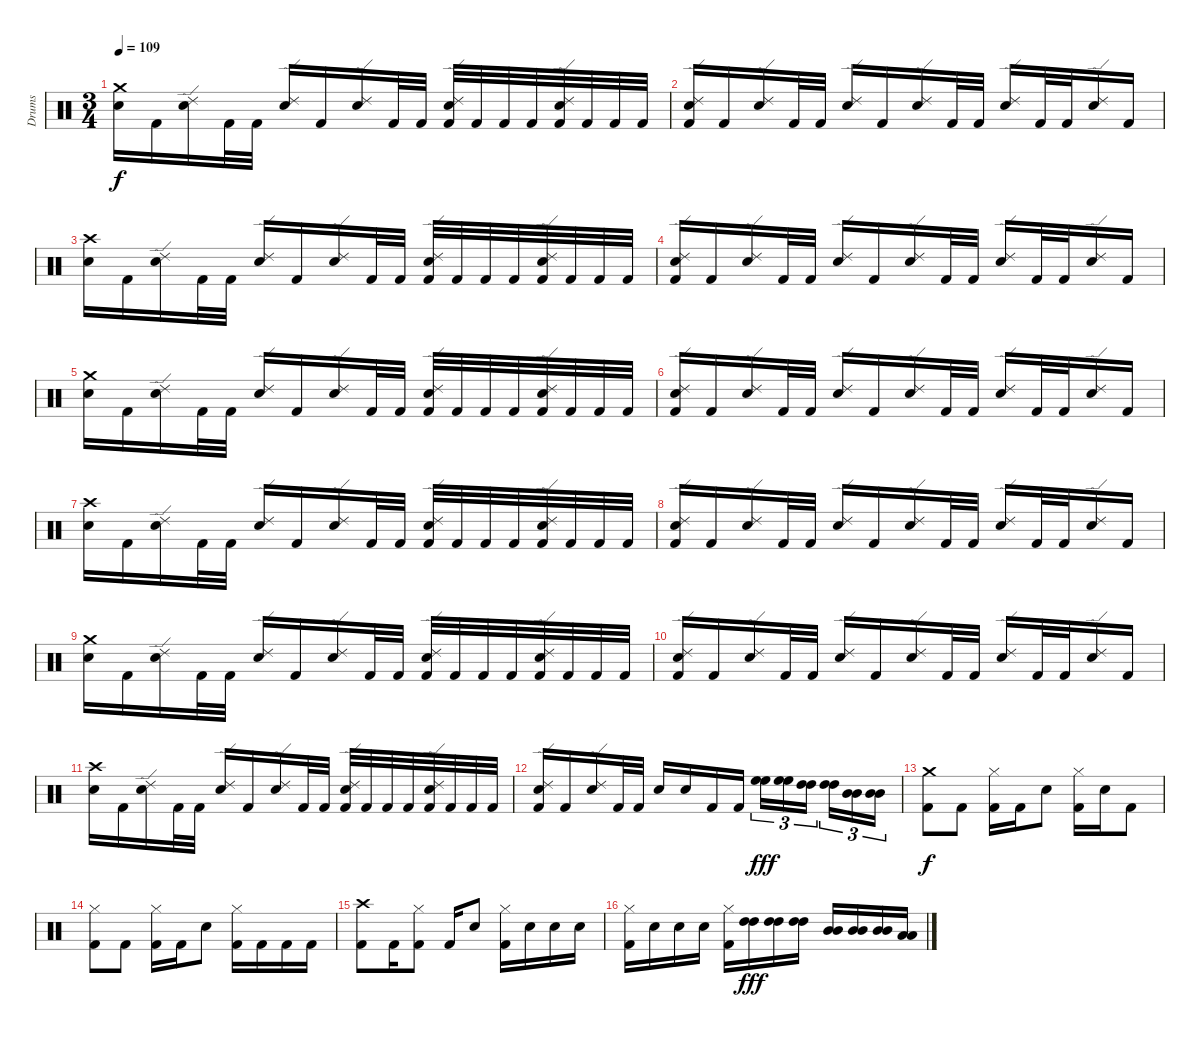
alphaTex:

\track ("Drums" "Drums") {instrument percussion}
\staff {score}
\articulation defaults
\ts (3 4)
\tempo 109
\clef neutral
\ks c
("Crash medium (hit)" "Snare (hit) 2").16{dy f} "Kick (hit) 2".16 ("Ride (edge) 2" "Snare (hit) 2").16 "Kick (hit) 2".32 "Kick (hit) 2".32 ("Ride (edge) 2" "Snare (hit) 2").16 "Kick (hit) 2".16 ("Ride (edge) 2" "Snare (hit) 2").16 "Kick (hit) 2".32 "Kick (hit) 2".32 ("Ride (edge) 2" "Snare (hit) 2" "Kick (hit) 2").32 "Kick (hit) 2".32 "Kick (hit) 2".32 "Kick (hit) 2".32 ("Ride (edge) 2" "Snare (hit) 2" "Kick (hit) 2").32 "Kick (hit) 2".32 "Kick (hit) 2".32 "Kick (hit) 2".32 |
("Ride (edge) 2" "Snare (hit) 2" "Kick (hit) 2").16 "Kick (hit) 2".16 ("Ride (edge) 2" "Snare (hit) 2").16 "Kick (hit) 2".32 "Kick (hit) 2".32 ("Ride (edge) 2" "Snare (hit) 2").16 "Kick (hit) 2".16 ("Ride (edge) 2" "Snare (hit) 2").16 "Kick (hit) 2".32 "Kick (hit) 2".32 ("Ride (edge) 2" "Snare (hit) 2").16 "Kick (hit) 2".32 "Kick (hit) 2".32 ("Ride (edge) 2" "Snare (hit) 2").16 "Kick (hit) 2".16 |
("Crash high (hit)" "Snare (hit) 2").16 "Kick (hit) 2".16 ("Ride (edge) 2" "Snare (hit) 2").16 "Kick (hit) 2".32 "Kick (hit) 2".32 ("Ride (edge) 2" "Snare (hit) 2").16 "Kick (hit) 2".16 ("Ride (edge) 2" "Snare (hit) 2").16 "Kick (hit) 2".32 "Kick (hit) 2".32 ("Ride (edge) 2" "Snare (hit) 2" "Kick (hit) 2").32 "Kick (hit) 2".32 "Kick (hit) 2".32 "Kick (hit) 2".32 ("Ride (edge) 2" "Snare (hit) 2" "Kick (hit) 2").32 "Kick (hit) 2".32 "Kick (hit) 2".32 "Kick (hit) 2".32 |
("Ride (edge) 2" "Snare (hit) 2" "Kick (hit) 2").16 "Kick (hit) 2".16 ("Ride (edge) 2" "Snare (hit) 2").16 "Kick (hit) 2".32 "Kick (hit) 2".32 ("Ride (edge) 2" "Snare (hit) 2").16 "Kick (hit) 2".16 ("Ride (edge) 2" "Snare (hit) 2").16 "Kick (hit) 2".32 "Kick (hit) 2".32 ("Ride (edge) 2" "Snare (hit) 2").16 "Kick (hit) 2".32 "Kick (hit) 2".32 ("Ride (edge) 2" "Snare (hit) 2").16 "Kick (hit) 2".16 |
("Crash medium (hit)" "Snare (hit) 2").16 "Kick (hit) 2".16 ("Ride (edge) 2" "Snare (hit) 2").16 "Kick (hit) 2".32 "Kick (hit) 2".32 ("Ride (edge) 2" "Snare (hit) 2").16 "Kick (hit) 2".16 ("Ride (edge) 2" "Snare (hit) 2").16 "Kick (hit) 2".32 "Kick (hit) 2".32 ("Ride (edge) 2" "Snare (hit) 2" "Kick (hit) 2").32 "Kick (hit) 2".32 "Kick (hit) 2".32 "Kick (hit) 2".32 ("Ride (edge) 2" "Snare (hit) 2" "Kick (hit) 2").32 "Kick (hit) 2".32 "Kick (hit) 2".32 "Kick (hit) 2".32 |
("Ride (edge) 2" "Snare (hit) 2" "Kick (hit) 2").16 "Kick (hit) 2".16 ("Ride (edge) 2" "Snare (hit) 2").16 "Kick (hit) 2".32 "Kick (hit) 2".32 ("Ride (edge) 2" "Snare (hit) 2").16 "Kick (hit) 2".16 ("Ride (edge) 2" "Snare (hit) 2").16 "Kick (hit) 2".32 "Kick (hit) 2".32 ("Ride (edge) 2" "Snare (hit) 2").16 "Kick (hit) 2".32 "Kick (hit) 2".32 ("Ride (edge) 2" "Snare (hit) 2").16 "Kick (hit) 2".16 |
("Crash high (hit)" "Snare (hit) 2").16 "Kick (hit) 2".16 ("Ride (edge) 2" "Snare (hit) 2").16 "Kick (hit) 2".32 "Kick (hit) 2".32 ("Ride (edge) 2" "Snare (hit) 2").16 "Kick (hit) 2".16 ("Ride (edge) 2" "Snare (hit) 2").16 "Kick (hit) 2".32 "Kick (hit) 2".32 ("Ride (edge) 2" "Snare (hit) 2" "Kick (hit) 2").32 "Kick (hit) 2".32 "Kick (hit) 2".32 "Kick (hit) 2".32 ("Ride (edge) 2" "Snare (hit) 2" "Kick (hit) 2").32 "Kick (hit) 2".32 "Kick (hit) 2".32 "Kick (hit) 2".32 |
("Ride (edge) 2" "Snare (hit) 2" "Kick (hit) 2").16 "Kick (hit) 2".16 ("Ride (edge) 2" "Snare (hit) 2").16 "Kick (hit) 2".32 "Kick (hit) 2".32 ("Ride (edge) 2" "Snare (hit) 2").16 "Kick (hit) 2".16 ("Ride (edge) 2" "Snare (hit) 2").16 "Kick (hit) 2".32 "Kick (hit) 2".32 ("Ride (edge) 2" "Snare (hit) 2").16 "Kick (hit) 2".32 "Kick (hit) 2".32 ("Ride (edge) 2" "Snare (hit) 2").16 "Kick (hit) 2".16 |
("Crash medium (hit)" "Snare (hit) 2").16 "Kick (hit) 2".16 ("Ride (edge) 2" "Snare (hit) 2").16 "Kick (hit) 2".32 "Kick (hit) 2".32 ("Ride (edge) 2" "Snare (hit) 2").16 "Kick (hit) 2".16 ("Ride (edge) 2" "Snare (hit) 2").16 "Kick (hit) 2".32 "Kick (hit) 2".32 ("Ride (edge) 2" "Snare (hit) 2" "Kick (hit) 2").32 "Kick (hit) 2".32 "Kick (hit) 2".32 "Kick (hit) 2".32 ("Ride (edge) 2" "Snare (hit) 2" "Kick (hit) 2").32 "Kick (hit) 2".32 "Kick (hit) 2".32 "Kick (hit) 2".32 |
("Ride (edge) 2" "Snare (hit) 2" "Kick (hit) 2").16 "Kick (hit) 2".16 ("Ride (edge) 2" "Snare (hit) 2").16 "Kick (hit) 2".32 "Kick (hit) 2".32 ("Ride (edge) 2" "Snare (hit) 2").16 "Kick (hit) 2".16 ("Ride (edge) 2" "Snare (hit) 2").16 "Kick (hit) 2".32 "Kick (hit) 2".32 ("Ride (edge) 2" "Snare (hit) 2").16 "Kick (hit) 2".32 "Kick (hit) 2".32 ("Ride (edge) 2" "Snare (hit) 2").16 "Kick (hit) 2".16 |
("Crash high (hit)" "Snare (hit) 2").16 "Kick (hit) 2".16 ("Ride (edge) 2" "Snare (hit) 2").16 "Kick (hit) 2".32 "Kick (hit) 2".32 ("Ride (edge) 2" "Snare (hit) 2").16 "Kick (hit) 2".16 ("Ride (edge) 2" "Snare (hit) 2").16 "Kick (hit) 2".32 "Kick (hit) 2".32 ("Ride (edge) 2" "Snare (hit) 2" "Kick (hit) 2").32 "Kick (hit) 2".32 "Kick (hit) 2".32 "Kick (hit) 2".32 ("Ride (edge) 2" "Snare (hit) 2" "Kick (hit) 2").32 "Kick (hit) 2".32 "Kick (hit) 2".32 "Kick (hit) 2".32 |
("Ride (edge) 2" "Snare (hit) 2" "Kick (hit) 2").16 "Kick (hit) 2".16 ("Ride (edge) 2" "Snare (hit) 2").16 "Kick (hit) 2".32 "Kick (hit) 2".32 "Snare (hit) 2".16 "Snare (hit) 2".16 "Kick (hit) 2".16 "Kick (hit) 2".16 ("High Floor Tom (hit)" "High Floor Tom (hit)").16{tu (3 2) dy fff} ("High Floor Tom (hit)" "High Floor Tom (hit)").16{tu (3 2)} ("High Tom (hit)" "High Tom (hit)").16{tu (3 2)} ("High Tom (hit)" "High Tom (hit)").16{tu (3 2)} ("Mid Tom (hit)" "Mid Tom (hit)").16{tu (3 2)} ("Mid Tom (hit)" "Mid Tom (hit)").16{tu (3 2)} |
("Crash medium (hit)" "Kick (hit) 2").8{dy f} "Kick (hit) 2".8 ("Hi-Hat (closed)" "Kick (hit) 2").16 "Kick (hit) 2".16 "Snare (hit) 2".8 ("Hi-Hat (closed)" "Kick (hit) 2").16 "Snare (hit) 2".16 "Kick (hit) 2".8 |
("Hi-Hat (closed)" "Kick (hit) 2").8 "Kick (hit) 2".8 ("Hi-Hat (closed)" "Kick (hit) 2").16 "Kick (hit) 2".16 "Snare (hit) 2".8 ("Hi-Hat (closed)" "Kick (hit) 2").16 "Kick (hit) 2".16 "Kick (hit) 2".16 "Kick (hit) 2".16 |
("Crash high (hit)" "Kick (hit) 2").8 "Kick (hit) 2".16 ("Hi-Hat (closed)" "Kick (hit) 2").8 "Kick (hit) 2".16 "Snare (hit) 2".8 ("Hi-Hat (closed)" "Kick (hit) 2").16 "Snare (hit) 2".16 "Snare (hit) 2".16 "Snare (hit) 2".16 |
("Hi-Hat (closed)" "Kick (hit) 2").16 "Snare (hit) 2".16 "Snare (hit) 2".16 "Snare (hit) 2".16 ("Hi-Hat (closed)" "Kick (hit) 2").16 ("High Tom (hit)" "High Tom (hit)").16{dy fff} ("High Tom (hit)" "High Tom (hit)").16 ("High Tom (hit)" "High Tom (hit)").16 ("Mid Tom (hit)" "Mid Tom (hit)").16 ("Mid Tom (hit)" "Mid Tom (hit)").16 ("Mid Tom (hit)" "Mid Tom (hit)").16 ("Low Tom (hit)" "Low Tom (hit)").16
